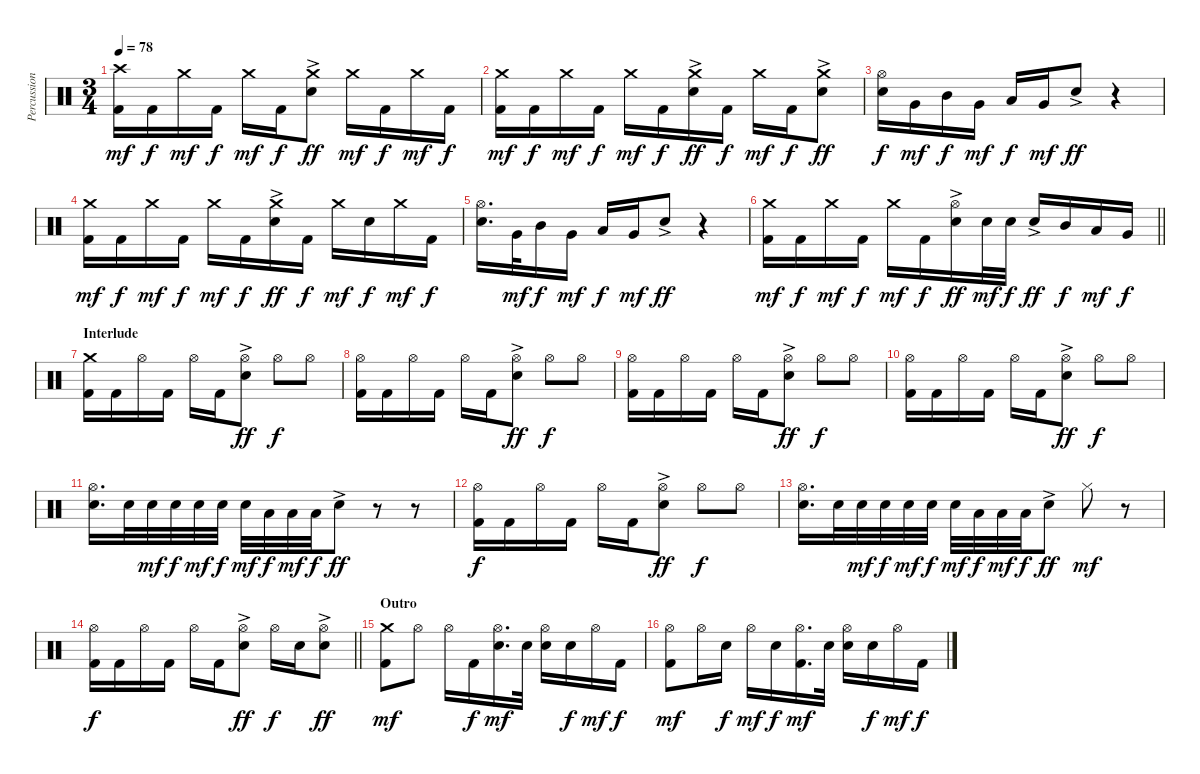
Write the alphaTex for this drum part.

\track ("Percussion" "Percussion") {instrument percussion}
\staff {score}
\articulation defaults
\ts (3 4)
\tempo 78
\clef neutral
\ks c
("Crash high (hit)" "Kick (hit) 2").16{dy mf} "Kick (hit) 2".16{dy f} "Crash medium (hit)".16{dy mf} "Kick (hit) 2".16{dy f} "Crash medium (hit)".16{dy mf} "Kick (hit) 2".16{dy f} ("Crash medium (hit)" "Electric Snare (hit)"{ac}).8{dy ff} "Crash medium (hit)".16{dy mf} "Kick (hit) 2".16{dy f} "Crash medium (hit)".16{dy mf} "Kick (hit) 2".16{dy f} |
("Crash medium (hit)" "Kick (hit) 2").16{dy mf} "Kick (hit) 2".16{dy f} "Crash medium (hit)".16{dy mf} "Kick (hit) 2".16{dy f} "Crash medium (hit)".16{dy mf} "Kick (hit) 2".16{dy f} ("Crash medium (hit)" "Electric Snare (hit)"{ac}).16{dy ff} "Kick (hit) 2".16{dy f} "Crash medium (hit)".16{dy mf} "Kick (hit) 2".16{dy f} ("Crash medium (hit)" "Electric Snare (hit)"{ac}).8{dy ff} |
("Hi-Hat (open)" "Electric Snare (hit)").16{dy f} "Very Low Tom (hit)".16{dy mf} "Mid Tom (hit)".16{dy f} "Very Low Tom (hit)".16{dy mf} "Low Tom (hit)".16{dy f} "Very Low Tom (hit)".16{dy mf} "Electric Snare (hit)"{ac}.8{dy ff} r.4 |
("Crash medium (hit)" "Kick (hit) 2").16{dy mf} "Kick (hit) 2".16{dy f} "Crash medium (hit)".16{dy mf} "Kick (hit) 2".16{dy f} "Crash medium (hit)".16{dy mf} "Kick (hit) 2".16{dy f} ("Crash medium (hit)" "Electric Snare (hit)"{ac}).16{dy ff} "Kick (hit) 2".16{dy f} "Crash medium (hit)".16{dy mf} "Electric Snare (hit)".16{dy f} "Crash medium (hit)".16{dy mf} "Kick (hit) 2".16{dy f} |
("Hi-Hat (open)" "Electric Snare (hit)").16{d} "Very Low Tom (hit)".32{dy mf} "Mid Tom (hit)".16{dy f} "Very Low Tom (hit)".16{dy mf} "Low Tom (hit)".16{dy f} "Very Low Tom (hit)".16{dy mf} "Electric Snare (hit)"{ac}.8{dy ff} r.4 |
\barLineRight lightlight
("Crash medium (hit)" "Kick (hit) 2").16{dy mf} "Kick (hit) 2".16{dy f} "Crash medium (hit)".16{dy mf} "Kick (hit) 2".16{dy f} "Crash medium (hit)".16{dy mf} "Kick (hit) 2".16{dy f} ("Hi-Hat (open)" "Electric Snare (hit)"{ac}).16{dy ff} "Electric Snare (hit)".32{dy mf} "Electric Snare (hit)".32{dy f} "Electric Snare (hit)"{ac}.16{dy ff} "Mid Tom (hit)".16{dy f} "Low Tom (hit)".16{dy mf} "Very Low Tom (hit)".16{dy f} |
\section ("" "Interlude")
("Crash medium (hit)" "Kick (hit) 2").16 "Kick (hit) 2".16 "Hi-Hat (open)".16 "Kick (hit) 2".16 "Hi-Hat (open)".16 "Kick (hit) 2".16 ("Hi-Hat (open)" "Electric Snare (hit)"{ac}).8{dy ff} "Hi-Hat (open)".8{dy f} "Hi-Hat (open)".8 |
("Hi-Hat (open)" "Kick (hit) 2").16 "Kick (hit) 2".16 "Hi-Hat (open)".16 "Kick (hit) 2".16 "Hi-Hat (open)".16 "Kick (hit) 2".16 ("Hi-Hat (open)" "Electric Snare (hit)"{ac}).8{dy ff} "Hi-Hat (open)".8{dy f} "Hi-Hat (open)".8 |
("Hi-Hat (open)" "Kick (hit) 2").16 "Kick (hit) 2".16 "Hi-Hat (open)".16 "Kick (hit) 2".16 "Hi-Hat (open)".16 "Kick (hit) 2".16 ("Hi-Hat (open)" "Electric Snare (hit)"{ac}).8{dy ff} "Hi-Hat (open)".8{dy f} "Hi-Hat (open)".8 |
("Hi-Hat (open)" "Kick (hit) 2").16 "Kick (hit) 2".16 "Hi-Hat (open)".16 "Kick (hit) 2".16 "Hi-Hat (open)".16 "Kick (hit) 2".16 ("Hi-Hat (open)" "Electric Snare (hit)"{ac}).8{dy ff} "Hi-Hat (open)".8{dy f} "Hi-Hat (open)".8 |
("Hi-Hat (open)" "Electric Snare (hit)").16{d} "Electric Snare (hit)".32 "Electric Snare (hit)".32{dy mf} "Electric Snare (hit)".32{dy f} "Electric Snare (hit)".32{dy mf} "Electric Snare (hit)".32{dy f} "Electric Snare (hit)".32{dy mf} "Low Tom (hit)".32{dy f} "Low Tom (hit)".32{dy mf} "Low Tom (hit)".32{dy f} "Electric Snare (hit)"{ac}.8{dy ff} r.8 r.8 |
("Hi-Hat (open)" "Kick (hit) 2").16{dy f} "Kick (hit) 2".16 "Hi-Hat (open)".16 "Kick (hit) 2".16 "Hi-Hat (open)".16 "Kick (hit) 2".16 ("Hi-Hat (open)" "Electric Snare (hit)"{ac}).8{dy ff} "Hi-Hat (open)".8{dy f} "Hi-Hat (open)".8 |
("Hi-Hat (open)" "Electric Snare (hit)").16{d} "Electric Snare (hit)".32 "Electric Snare (hit)".32{dy mf} "Electric Snare (hit)".32{dy f} "Electric Snare (hit)".32{dy mf} "Electric Snare (hit)".32{dy f} "Electric Snare (hit)".32{dy mf} "Low Tom (hit)".32{dy f} "Low Tom (hit)".32{dy mf} "Low Tom (hit)".32{dy f} "Electric Snare (hit)"{ac}.8{dy ff} "Hi-Hat (closed)".8{dy mf} r.8 |
\barLineRight lightlight
("Hi-Hat (open)" "Kick (hit) 2").16{dy f} "Kick (hit) 2".16 "Hi-Hat (open)".16 "Kick (hit) 2".16 "Hi-Hat (open)".16 "Kick (hit) 2".16 ("Hi-Hat (open)" "Electric Snare (hit)"{ac}).8{dy ff} "Hi-Hat (open)".16{dy f} "Electric Snare (hit)".16 ("Hi-Hat (open)" "Electric Snare (hit)"{ac}).8{dy ff} |
\section ("" "Outro")
("Crash medium (hit)" "Kick (hit) 2").8{dy mf} "Hi-Hat (open)".8 "Hi-Hat (open)".16 "Kick (hit) 2".16{dy f} ("Hi-Hat (open)" "Electric Snare (hit)").16{d dy mf} "Electric Snare (hit)".32 ("Hi-Hat (open)" "Electric Snare (hit)").16 "Electric Snare (hit)".16{dy f} "Hi-Hat (open)".16{dy mf} "Kick (hit) 2".16{dy f} |
("Hi-Hat (open)" "Kick (hit) 2").8{dy mf} "Hi-Hat (open)".16 "Electric Snare (hit)".16{dy f} "Hi-Hat (open)".16{dy mf} "Electric Snare (hit)".16{dy f} ("Hi-Hat (open)" "Kick (hit) 2").16{d dy mf} "Electric Snare (hit)".32 ("Hi-Hat (open)" "Electric Snare (hit)").16 "Electric Snare (hit)".16{dy f} "Hi-Hat (open)".16{dy mf} "Kick (hit) 2".16{dy f}
